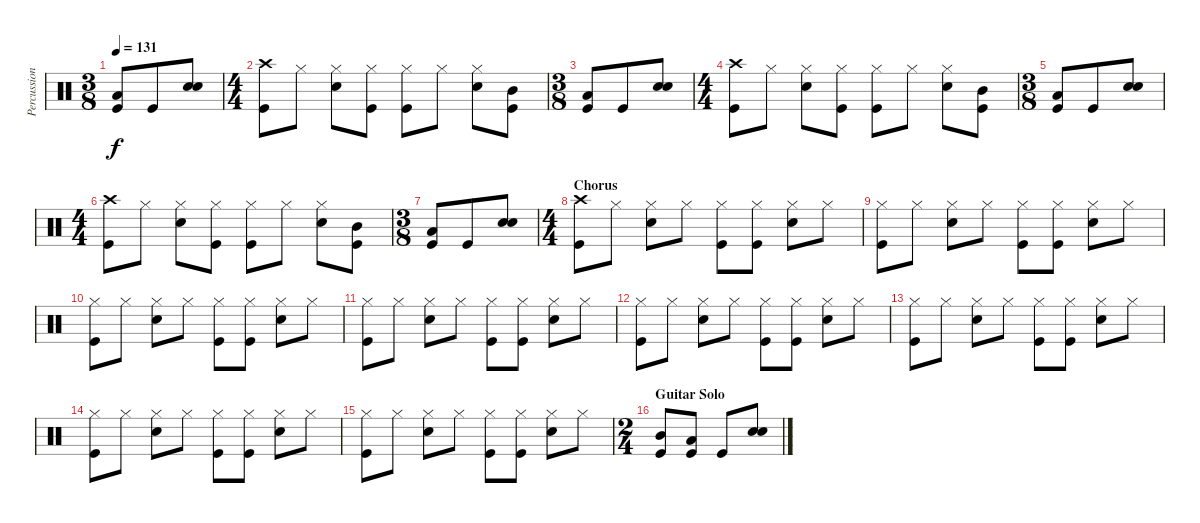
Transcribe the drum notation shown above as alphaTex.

\track ("Percussions" "Percussion") {instrument percussion}
\staff {score}
\articulation defaults
\ts (3 8)
\tempo 131
\clef neutral
\ks c
("Low Tom (hit)" "Kick (hit)").8{dy f} "Kick (hit)".8 ("Electric Snare (hit)" "Electric Snare (hit)").8{bd 120} |
\ts (4 4)
("Crash high (hit)" "Kick (hit)").8 "Hi-Hat (closed)".8 ("Hi-Hat (closed)" "Electric Snare (hit)").8 ("Hi-Hat (closed)" "Kick (hit)").8 ("Hi-Hat (closed)" "Kick (hit)").8 "Hi-Hat (closed)".8 ("Hi-Hat (closed)" "Electric Snare (hit)").8 ("Mid Tom (hit)" "Kick (hit)").8 |
\ts (3 8)
("Low Tom (hit)" "Kick (hit)").8 "Kick (hit)".8 ("Electric Snare (hit)" "Electric Snare (hit)").8{bd 120} |
\ts (4 4)
("Crash high (hit)" "Kick (hit)").8 "Hi-Hat (closed)".8 ("Hi-Hat (closed)" "Electric Snare (hit)").8 ("Hi-Hat (closed)" "Kick (hit)").8 ("Hi-Hat (closed)" "Kick (hit)").8 "Hi-Hat (closed)".8 ("Hi-Hat (closed)" "Electric Snare (hit)").8 ("Mid Tom (hit)" "Kick (hit)").8 |
\ts (3 8)
("Low Tom (hit)" "Kick (hit)").8 "Kick (hit)".8 ("Electric Snare (hit)" "Electric Snare (hit)").8{bd 120} |
\ts (4 4)
("Crash high (hit)" "Kick (hit)").8 "Hi-Hat (closed)".8 ("Hi-Hat (closed)" "Electric Snare (hit)").8 ("Hi-Hat (closed)" "Kick (hit)").8 ("Hi-Hat (closed)" "Kick (hit)").8 "Hi-Hat (closed)".8 ("Hi-Hat (closed)" "Electric Snare (hit)").8 ("Mid Tom (hit)" "Kick (hit)").8 |
\ts (3 8)
("Low Tom (hit)" "Kick (hit)").8 "Kick (hit)".8 ("Electric Snare (hit)" "Electric Snare (hit)").8{bd 120} |
\ts (4 4)
\section ("" "Chorus")
("Crash high (hit)" "Kick (hit)").8 "Hi-Hat (closed)".8 ("Hi-Hat (closed)" "Electric Snare (hit)").8 "Hi-Hat (closed)".8 ("Hi-Hat (closed)" "Kick (hit)").8 ("Hi-Hat (closed)" "Kick (hit)").8 ("Hi-Hat (closed)" "Electric Snare (hit)").8 "Hi-Hat (closed)".8 |
("Hi-Hat (closed)" "Kick (hit)").8 "Hi-Hat (closed)".8 ("Hi-Hat (closed)" "Electric Snare (hit)").8 "Hi-Hat (closed)".8 ("Hi-Hat (closed)" "Kick (hit)").8 ("Hi-Hat (closed)" "Kick (hit)").8 ("Hi-Hat (closed)" "Electric Snare (hit)").8 "Hi-Hat (closed)".8 |
("Hi-Hat (closed)" "Kick (hit)").8 "Hi-Hat (closed)".8 ("Hi-Hat (closed)" "Electric Snare (hit)").8 "Hi-Hat (closed)".8 ("Hi-Hat (closed)" "Kick (hit)").8 ("Hi-Hat (closed)" "Kick (hit)").8 ("Hi-Hat (closed)" "Electric Snare (hit)").8 "Hi-Hat (closed)".8 |
("Hi-Hat (closed)" "Kick (hit)").8 "Hi-Hat (closed)".8 ("Hi-Hat (closed)" "Electric Snare (hit)").8 "Hi-Hat (closed)".8 ("Hi-Hat (closed)" "Kick (hit)").8 ("Hi-Hat (closed)" "Kick (hit)").8 ("Hi-Hat (closed)" "Electric Snare (hit)").8 "Hi-Hat (closed)".8 |
("Hi-Hat (closed)" "Kick (hit)").8 "Hi-Hat (closed)".8 ("Hi-Hat (closed)" "Electric Snare (hit)").8 "Hi-Hat (closed)".8 ("Hi-Hat (closed)" "Kick (hit)").8 ("Hi-Hat (closed)" "Kick (hit)").8 ("Hi-Hat (closed)" "Electric Snare (hit)").8 "Hi-Hat (closed)".8 |
("Hi-Hat (closed)" "Kick (hit)").8 "Hi-Hat (closed)".8 ("Hi-Hat (closed)" "Electric Snare (hit)").8 "Hi-Hat (closed)".8 ("Hi-Hat (closed)" "Kick (hit)").8 ("Hi-Hat (closed)" "Kick (hit)").8 ("Hi-Hat (closed)" "Electric Snare (hit)").8 "Hi-Hat (closed)".8 |
("Hi-Hat (closed)" "Kick (hit)").8 "Hi-Hat (closed)".8 ("Hi-Hat (closed)" "Electric Snare (hit)").8 "Hi-Hat (closed)".8 ("Hi-Hat (closed)" "Kick (hit)").8 ("Hi-Hat (closed)" "Kick (hit)").8 ("Hi-Hat (closed)" "Electric Snare (hit)").8 "Hi-Hat (closed)".8 |
("Hi-Hat (closed)" "Kick (hit)").8 "Hi-Hat (closed)".8 ("Hi-Hat (closed)" "Electric Snare (hit)").8 "Hi-Hat (closed)".8 ("Hi-Hat (closed)" "Kick (hit)").8 ("Hi-Hat (closed)" "Kick (hit)").8 ("Hi-Hat (closed)" "Electric Snare (hit)").8 "Hi-Hat (closed)".8 |
\ts (2 4)
\section ("" "Guitar Solo")
("Mid Tom (hit)" "Kick (hit)").8 ("Low Tom (hit)" "Kick (hit)").8 "Kick (hit)".8 ("Electric Snare (hit)" "Electric Snare (hit)").8{bd 120}
